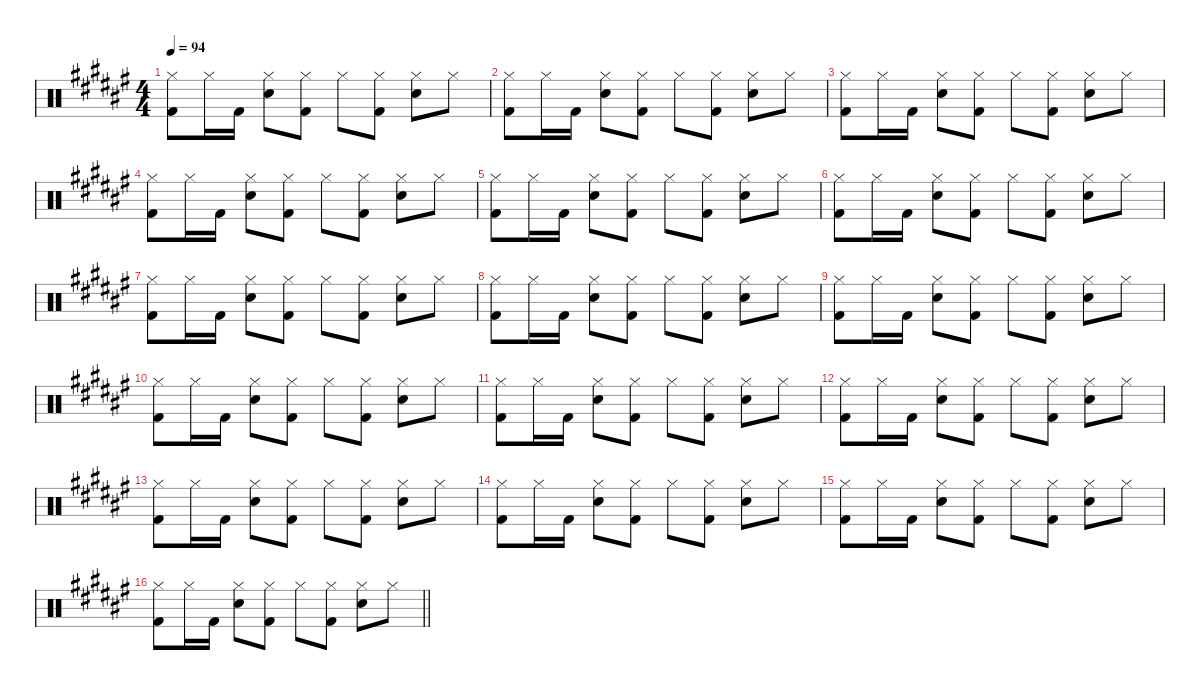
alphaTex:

\defaultSystemsLayout 4
\hideDynamics
\bracketExtendMode nobrackets
\singleTrackTrackNamePolicy hidden
\multiTrackTrackNamePolicy hidden
\otherSystemsTrackNameOrientation horizontal
\track ("Mike Joyce" "drm.") {instrument percussion}
\staff {score}
\articulation defaults
\ts (4 4)
\tempo 94
\clef neutral
\ks f#
("Hi-Hat (closed)"{acc forcenatural} "Kick (hit) 2"{acc forcenatural}).8{dy f beam Down} "Hi-Hat (closed)"{acc forcenatural}.16{beam Down} "Kick (hit) 2"{acc forcenatural}.16{beam Down} ("Hi-Hat (closed)"{acc forcenatural} "Snare (hit) 2"{acc forcenatural}).8{beam Down} ("Hi-Hat (closed)"{acc forcenatural} "Kick (hit) 2"{acc forcenatural}).8{beam Down} "Hi-Hat (closed)"{acc forcenatural}.8{beam Down} ("Hi-Hat (closed)"{acc forcenatural} "Kick (hit) 2"{acc forcenatural}).8{beam Down} ("Hi-Hat (closed)"{acc forcenatural} "Snare (hit) 2"{acc forcenatural}).8{beam Down} "Hi-Hat (closed)"{acc forcenatural}.8{beam Down} |
("Hi-Hat (closed)"{acc forcenatural} "Kick (hit) 2"{acc forcenatural}).8{beam Down} "Hi-Hat (closed)"{acc forcenatural}.16{beam Down} "Kick (hit) 2"{acc forcenatural}.16{beam Down} ("Hi-Hat (closed)"{acc forcenatural} "Snare (hit) 2"{acc forcenatural}).8{beam Down} ("Hi-Hat (closed)"{acc forcenatural} "Kick (hit) 2"{acc forcenatural}).8{beam Down} "Hi-Hat (closed)"{acc forcenatural}.8{beam Down} ("Hi-Hat (closed)"{acc forcenatural} "Kick (hit) 2"{acc forcenatural}).8{beam Down} ("Hi-Hat (closed)"{acc forcenatural} "Snare (hit) 2"{acc forcenatural}).8{beam Down} "Hi-Hat (closed)"{acc forcenatural}.8{beam Down} |
("Hi-Hat (closed)"{acc forcenatural} "Kick (hit) 2"{acc forcenatural}).8{beam Down} "Hi-Hat (closed)"{acc forcenatural}.16{beam Down} "Kick (hit) 2"{acc forcenatural}.16{beam Down} ("Hi-Hat (closed)"{acc forcenatural} "Snare (hit) 2"{acc forcenatural}).8{beam Down} ("Hi-Hat (closed)"{acc forcenatural} "Kick (hit) 2"{acc forcenatural}).8{beam Down} "Hi-Hat (closed)"{acc forcenatural}.8{beam Down} ("Hi-Hat (closed)"{acc forcenatural} "Kick (hit) 2"{acc forcenatural}).8{beam Down} ("Hi-Hat (closed)"{acc forcenatural} "Snare (hit) 2"{acc forcenatural}).8{beam Down} "Hi-Hat (closed)"{acc forcenatural}.8{beam Down} |
("Hi-Hat (closed)"{acc forcenatural} "Kick (hit) 2"{acc forcenatural}).8{beam Down} "Hi-Hat (closed)"{acc forcenatural}.16{beam Down} "Kick (hit) 2"{acc forcenatural}.16{beam Down} ("Hi-Hat (closed)"{acc forcenatural} "Snare (hit) 2"{acc forcenatural}).8{beam Down} ("Hi-Hat (closed)"{acc forcenatural} "Kick (hit) 2"{acc forcenatural}).8{beam Down} "Hi-Hat (closed)"{acc forcenatural}.8{beam Down} ("Hi-Hat (closed)"{acc forcenatural} "Kick (hit) 2"{acc forcenatural}).8{beam Down} ("Hi-Hat (closed)"{acc forcenatural} "Snare (hit) 2"{acc forcenatural}).8{beam Down} "Hi-Hat (closed)"{acc forcenatural}.8{beam Down} |
("Hi-Hat (closed)"{acc forcenatural} "Kick (hit) 2"{acc forcenatural}).8{beam Down} "Hi-Hat (closed)"{acc forcenatural}.16{beam Down} "Kick (hit) 2"{acc forcenatural}.16{beam Down} ("Hi-Hat (closed)"{acc forcenatural} "Snare (hit) 2"{acc forcenatural}).8{beam Down} ("Hi-Hat (closed)"{acc forcenatural} "Kick (hit) 2"{acc forcenatural}).8{beam Down} "Hi-Hat (closed)"{acc forcenatural}.8{beam Down} ("Hi-Hat (closed)"{acc forcenatural} "Kick (hit) 2"{acc forcenatural}).8{beam Down} ("Hi-Hat (closed)"{acc forcenatural} "Snare (hit) 2"{acc forcenatural}).8{beam Down} "Hi-Hat (closed)"{acc forcenatural}.8{beam Down} |
("Hi-Hat (closed)"{acc forcenatural} "Kick (hit) 2"{acc forcenatural}).8{beam Down} "Hi-Hat (closed)"{acc forcenatural}.16{beam Down} "Kick (hit) 2"{acc forcenatural}.16{beam Down} ("Hi-Hat (closed)"{acc forcenatural} "Snare (hit) 2"{acc forcenatural}).8{beam Down} ("Hi-Hat (closed)"{acc forcenatural} "Kick (hit) 2"{acc forcenatural}).8{beam Down} "Hi-Hat (closed)"{acc forcenatural}.8{beam Down} ("Hi-Hat (closed)"{acc forcenatural} "Kick (hit) 2"{acc forcenatural}).8{beam Down} ("Hi-Hat (closed)"{acc forcenatural} "Snare (hit) 2"{acc forcenatural}).8{beam Down} "Hi-Hat (closed)"{acc forcenatural}.8{beam Down} |
("Hi-Hat (closed)"{acc forcenatural} "Kick (hit) 2"{acc forcenatural}).8{beam Down} "Hi-Hat (closed)"{acc forcenatural}.16{beam Down} "Kick (hit) 2"{acc forcenatural}.16{beam Down} ("Hi-Hat (closed)"{acc forcenatural} "Snare (hit) 2"{acc forcenatural}).8{beam Down} ("Hi-Hat (closed)"{acc forcenatural} "Kick (hit) 2"{acc forcenatural}).8{beam Down} "Hi-Hat (closed)"{acc forcenatural}.8{beam Down} ("Hi-Hat (closed)"{acc forcenatural} "Kick (hit) 2"{acc forcenatural}).8{beam Down} ("Hi-Hat (closed)"{acc forcenatural} "Snare (hit) 2"{acc forcenatural}).8{beam Down} "Hi-Hat (closed)"{acc forcenatural}.8{beam Down} |
("Hi-Hat (closed)"{acc forcenatural} "Kick (hit) 2"{acc forcenatural}).8{beam Down} "Hi-Hat (closed)"{acc forcenatural}.16{beam Down} "Kick (hit) 2"{acc forcenatural}.16{beam Down} ("Hi-Hat (closed)"{acc forcenatural} "Snare (hit) 2"{acc forcenatural}).8{beam Down} ("Hi-Hat (closed)"{acc forcenatural} "Kick (hit) 2"{acc forcenatural}).8{beam Down} "Hi-Hat (closed)"{acc forcenatural}.8{beam Down} ("Hi-Hat (closed)"{acc forcenatural} "Kick (hit) 2"{acc forcenatural}).8{beam Down} ("Hi-Hat (closed)"{acc forcenatural} "Snare (hit) 2"{acc forcenatural}).8{beam Down} "Hi-Hat (closed)"{acc forcenatural}.8{beam Down} |
("Hi-Hat (closed)"{acc forcenatural} "Kick (hit) 2"{acc forcenatural}).8{beam Down} "Hi-Hat (closed)"{acc forcenatural}.16{beam Down} "Kick (hit) 2"{acc forcenatural}.16{beam Down} ("Hi-Hat (closed)"{acc forcenatural} "Snare (hit) 2"{acc forcenatural}).8{beam Down} ("Hi-Hat (closed)"{acc forcenatural} "Kick (hit) 2"{acc forcenatural}).8{beam Down} "Hi-Hat (closed)"{acc forcenatural}.8{beam Down} ("Hi-Hat (closed)"{acc forcenatural} "Kick (hit) 2"{acc forcenatural}).8{beam Down} ("Hi-Hat (closed)"{acc forcenatural} "Snare (hit) 2"{acc forcenatural}).8{beam Down} "Hi-Hat (closed)"{acc forcenatural}.8{beam Down} |
("Hi-Hat (closed)"{acc forcenatural} "Kick (hit) 2"{acc forcenatural}).8{beam Down} "Hi-Hat (closed)"{acc forcenatural}.16{beam Down} "Kick (hit) 2"{acc forcenatural}.16{beam Down} ("Hi-Hat (closed)"{acc forcenatural} "Snare (hit) 2"{acc forcenatural}).8{beam Down} ("Hi-Hat (closed)"{acc forcenatural} "Kick (hit) 2"{acc forcenatural}).8{beam Down} "Hi-Hat (closed)"{acc forcenatural}.8{beam Down} ("Hi-Hat (closed)"{acc forcenatural} "Kick (hit) 2"{acc forcenatural}).8{beam Down} ("Hi-Hat (closed)"{acc forcenatural} "Snare (hit) 2"{acc forcenatural}).8{beam Down} "Hi-Hat (closed)"{acc forcenatural}.8{beam Down} |
("Hi-Hat (closed)"{acc forcenatural} "Kick (hit) 2"{acc forcenatural}).8{beam Down} "Hi-Hat (closed)"{acc forcenatural}.16{beam Down} "Kick (hit) 2"{acc forcenatural}.16{beam Down} ("Hi-Hat (closed)"{acc forcenatural} "Snare (hit) 2"{acc forcenatural}).8{beam Down} ("Hi-Hat (closed)"{acc forcenatural} "Kick (hit) 2"{acc forcenatural}).8{beam Down} "Hi-Hat (closed)"{acc forcenatural}.8{beam Down} ("Hi-Hat (closed)"{acc forcenatural} "Kick (hit) 2"{acc forcenatural}).8{beam Down} ("Hi-Hat (closed)"{acc forcenatural} "Snare (hit) 2"{acc forcenatural}).8{beam Down} "Hi-Hat (closed)"{acc forcenatural}.8{beam Down} |
("Hi-Hat (closed)"{acc forcenatural} "Kick (hit) 2"{acc forcenatural}).8{beam Down} "Hi-Hat (closed)"{acc forcenatural}.16{beam Down} "Kick (hit) 2"{acc forcenatural}.16{beam Down} ("Hi-Hat (closed)"{acc forcenatural} "Snare (hit) 2"{acc forcenatural}).8{beam Down} ("Hi-Hat (closed)"{acc forcenatural} "Kick (hit) 2"{acc forcenatural}).8{beam Down} "Hi-Hat (closed)"{acc forcenatural}.8{beam Down} ("Hi-Hat (closed)"{acc forcenatural} "Kick (hit) 2"{acc forcenatural}).8{beam Down} ("Hi-Hat (closed)"{acc forcenatural} "Snare (hit) 2"{acc forcenatural}).8{beam Down} "Hi-Hat (closed)"{acc forcenatural}.8{beam Down} |
("Hi-Hat (closed)"{acc forcenatural} "Kick (hit) 2"{acc forcenatural}).8{beam Down} "Hi-Hat (closed)"{acc forcenatural}.16{beam Down} "Kick (hit) 2"{acc forcenatural}.16{beam Down} ("Hi-Hat (closed)"{acc forcenatural} "Snare (hit) 2"{acc forcenatural}).8{beam Down} ("Hi-Hat (closed)"{acc forcenatural} "Kick (hit) 2"{acc forcenatural}).8{beam Down} "Hi-Hat (closed)"{acc forcenatural}.8{beam Down} ("Hi-Hat (closed)"{acc forcenatural} "Kick (hit) 2"{acc forcenatural}).8{beam Down} ("Hi-Hat (closed)"{acc forcenatural} "Snare (hit) 2"{acc forcenatural}).8{beam Down} "Hi-Hat (closed)"{acc forcenatural}.8{beam Down} |
("Hi-Hat (closed)"{acc forcenatural} "Kick (hit) 2"{acc forcenatural}).8{beam Down} "Hi-Hat (closed)"{acc forcenatural}.16{beam Down} "Kick (hit) 2"{acc forcenatural}.16{beam Down} ("Hi-Hat (closed)"{acc forcenatural} "Snare (hit) 2"{acc forcenatural}).8{beam Down} ("Hi-Hat (closed)"{acc forcenatural} "Kick (hit) 2"{acc forcenatural}).8{beam Down} "Hi-Hat (closed)"{acc forcenatural}.8{beam Down} ("Hi-Hat (closed)"{acc forcenatural} "Kick (hit) 2"{acc forcenatural}).8{beam Down} ("Hi-Hat (closed)"{acc forcenatural} "Snare (hit) 2"{acc forcenatural}).8{beam Down} "Hi-Hat (closed)"{acc forcenatural}.8{beam Down} |
("Hi-Hat (closed)"{acc forcenatural} "Kick (hit) 2"{acc forcenatural}).8{beam Down} "Hi-Hat (closed)"{acc forcenatural}.16{beam Down} "Kick (hit) 2"{acc forcenatural}.16{beam Down} ("Hi-Hat (closed)"{acc forcenatural} "Snare (hit) 2"{acc forcenatural}).8{beam Down} ("Hi-Hat (closed)"{acc forcenatural} "Kick (hit) 2"{acc forcenatural}).8{beam Down} "Hi-Hat (closed)"{acc forcenatural}.8{beam Down} ("Hi-Hat (closed)"{acc forcenatural} "Kick (hit) 2"{acc forcenatural}).8{beam Down} ("Hi-Hat (closed)"{acc forcenatural} "Snare (hit) 2"{acc forcenatural}).8{beam Down} "Hi-Hat (closed)"{acc forcenatural}.8{beam Down} |
\barLineRight lightlight
("Hi-Hat (closed)"{acc forcenatural} "Kick (hit) 2"{acc forcenatural}).8{beam Down} "Hi-Hat (closed)"{acc forcenatural}.16{beam Down} "Kick (hit) 2"{acc forcenatural}.16{beam Down} ("Hi-Hat (closed)"{acc forcenatural} "Snare (hit) 2"{acc forcenatural}).8{beam Down} ("Hi-Hat (closed)"{acc forcenatural} "Kick (hit) 2"{acc forcenatural}).8{beam Down} "Hi-Hat (closed)"{acc forcenatural}.8{beam Down} ("Hi-Hat (closed)"{acc forcenatural} "Kick (hit) 2"{acc forcenatural}).8{beam Down} ("Hi-Hat (closed)"{acc forcenatural} "Snare (hit) 2"{acc forcenatural}).8{beam Down} "Hi-Hat (closed)"{acc forcenatural}.8{beam Down}
